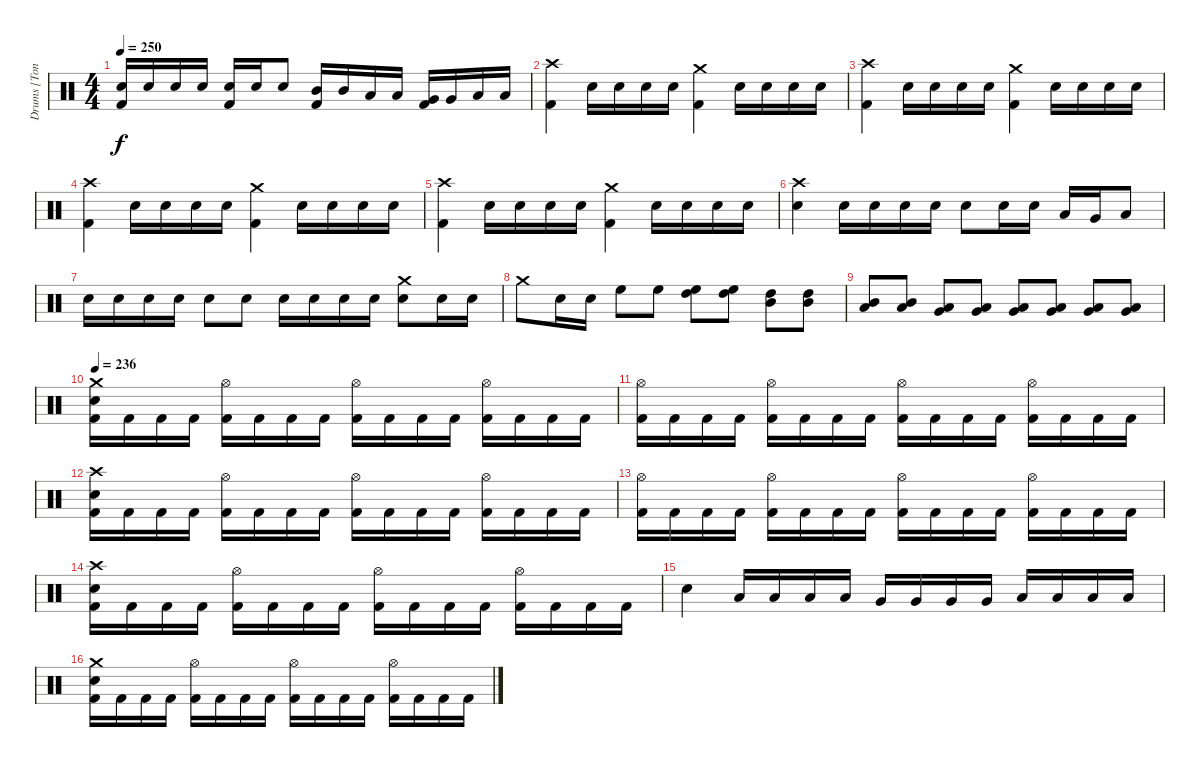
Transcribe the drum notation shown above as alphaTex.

\track ("Drums [Tony Laureano]" "Drums [Ton") {instrument percussion}
\staff {score}
\articulation defaults
\ts (4 4)
\tempo 250
\clef neutral
\ks c
("Electric Snare (hit)" "Kick (hit) 2").16{dy f} "Electric Snare (hit)".16 "Electric Snare (hit)".16 "Electric Snare (hit)".16 ("Electric Snare (hit)" "Kick (hit) 2").16 "Electric Snare (hit)".16 "Electric Snare (hit)".8 ("Mid Tom (hit)" "Kick (hit) 2").16 "Mid Tom (hit)".16 "Low Tom (hit)".16 "Low Tom (hit)".16 ("Very Low Tom (hit)" "Kick (hit) 2").16 "Very Low Tom (hit)".16 "Low Floor Tom (hit)".16 "Low Floor Tom (hit)".16 |
("Crash high (hit)" "Kick (hit) 2").4 "Electric Snare (hit)".16 "Electric Snare (hit)".16 "Electric Snare (hit)".16 "Electric Snare (hit)".16 ("Crash medium (hit)" "Kick (hit) 2").4 "Electric Snare (hit)".16 "Electric Snare (hit)".16 "Electric Snare (hit)".16 "Electric Snare (hit)".16 |
("Crash high (hit)" "Kick (hit) 2").4 "Electric Snare (hit)".16 "Electric Snare (hit)".16 "Electric Snare (hit)".16 "Electric Snare (hit)".16 ("Crash medium (hit)" "Kick (hit) 2").4 "Electric Snare (hit)".16 "Electric Snare (hit)".16 "Electric Snare (hit)".16 "Electric Snare (hit)".16 |
("Crash high (hit)" "Kick (hit) 2").4 "Electric Snare (hit)".16 "Electric Snare (hit)".16 "Electric Snare (hit)".16 "Electric Snare (hit)".16 ("Crash medium (hit)" "Kick (hit) 2").4 "Electric Snare (hit)".16 "Electric Snare (hit)".16 "Electric Snare (hit)".16 "Electric Snare (hit)".16 |
("Crash high (hit)" "Kick (hit) 2").4 "Electric Snare (hit)".16 "Electric Snare (hit)".16 "Electric Snare (hit)".16 "Electric Snare (hit)".16 ("Crash medium (hit)" "Kick (hit) 2").4 "Electric Snare (hit)".16 "Electric Snare (hit)".16 "Electric Snare (hit)".16 "Electric Snare (hit)".16 |
("Crash high (hit)" "Electric Snare (hit)").4 "Electric Snare (hit)".16 "Electric Snare (hit)".16 "Electric Snare (hit)".16 "Electric Snare (hit)".16 "Electric Snare (hit)".8 "Electric Snare (hit)".16 "Electric Snare (hit)".16 "Low Tom (hit)".16 "Very Low Tom (hit)".16 "Low Floor Tom (hit)".8 |
"Electric Snare (hit)".16 "Electric Snare (hit)".16 "Electric Snare (hit)".16 "Electric Snare (hit)".16 "Electric Snare (hit)".8 "Electric Snare (hit)".8 "Electric Snare (hit)".16 "Electric Snare (hit)".16 "Electric Snare (hit)".16 "Electric Snare (hit)".16 ("Crash medium (hit)" "Electric Snare (hit)").8 "Electric Snare (hit)".16 "Electric Snare (hit)".16 |
"Crash medium (hit)".8 "Electric Snare (hit)".16 "Electric Snare (hit)".16 "High Floor Tom (hit)".8 "High Floor Tom (hit)".8 ("High Tom (hit)" "High Floor Tom (hit)").8 ("High Tom (hit)" "High Floor Tom (hit)").8 ("Mid Tom (hit)" "High Tom (hit)").8 ("Mid Tom (hit)" "High Tom (hit)").8 |
("Mid Tom (hit)" "Low Tom (hit)").8 ("Mid Tom (hit)" "Low Tom (hit)").8 ("Low Tom (hit)" "Very Low Tom (hit)").8 ("Low Tom (hit)" "Very Low Tom (hit)").8 ("Very Low Tom (hit)" "Low Floor Tom (hit)").8 ("Very Low Tom (hit)" "Low Floor Tom (hit)").8 ("Very Low Tom (hit)" "Low Floor Tom (hit)").8 ("Very Low Tom (hit)" "Low Floor Tom (hit)").8 |
\tempo 236
("Crash medium (hit)" "Electric Snare (hit)" "Kick (hit) 2").16 "Kick (hit) 2".16 "Kick (hit) 2".16 "Kick (hit) 2".16 ("Hi-Hat (open)" "Kick (hit) 2").16 "Kick (hit) 2".16 "Kick (hit) 2".16 "Kick (hit) 2".16 ("Hi-Hat (open)" "Kick (hit) 2").16 "Kick (hit) 2".16 "Kick (hit) 2".16 "Kick (hit) 2".16 ("Hi-Hat (open)" "Kick (hit) 2").16 "Kick (hit) 2".16 "Kick (hit) 2".16 "Kick (hit) 2".16 |
("Hi-Hat (open)" "Kick (hit) 2").16 "Kick (hit) 2".16 "Kick (hit) 2".16 "Kick (hit) 2".16 ("Hi-Hat (open)" "Kick (hit) 2").16 "Kick (hit) 2".16 "Kick (hit) 2".16 "Kick (hit) 2".16 ("Hi-Hat (open)" "Kick (hit) 2").16 "Kick (hit) 2".16 "Kick (hit) 2".16 "Kick (hit) 2".16 ("Hi-Hat (open)" "Kick (hit) 2").16 "Kick (hit) 2".16 "Kick (hit) 2".16 "Kick (hit) 2".16 |
("Crash high (hit)" "Electric Snare (hit)" "Kick (hit) 2").16 "Kick (hit) 2".16 "Kick (hit) 2".16 "Kick (hit) 2".16 ("Hi-Hat (open)" "Kick (hit) 2").16 "Kick (hit) 2".16 "Kick (hit) 2".16 "Kick (hit) 2".16 ("Hi-Hat (open)" "Kick (hit) 2").16 "Kick (hit) 2".16 "Kick (hit) 2".16 "Kick (hit) 2".16 ("Hi-Hat (open)" "Kick (hit) 2").16 "Kick (hit) 2".16 "Kick (hit) 2".16 "Kick (hit) 2".16 |
("Hi-Hat (open)" "Kick (hit) 2").16 "Kick (hit) 2".16 "Kick (hit) 2".16 "Kick (hit) 2".16 ("Hi-Hat (open)" "Kick (hit) 2").16 "Kick (hit) 2".16 "Kick (hit) 2".16 "Kick (hit) 2".16 ("Hi-Hat (open)" "Kick (hit) 2").16 "Kick (hit) 2".16 "Kick (hit) 2".16 "Kick (hit) 2".16 ("Hi-Hat (open)" "Kick (hit) 2").16 "Kick (hit) 2".16 "Kick (hit) 2".16 "Kick (hit) 2".16 |
("Crash high (hit)" "Electric Snare (hit)" "Kick (hit) 2").16 "Kick (hit) 2".16 "Kick (hit) 2".16 "Kick (hit) 2".16 ("Hi-Hat (open)" "Kick (hit) 2").16 "Kick (hit) 2".16 "Kick (hit) 2".16 "Kick (hit) 2".16 ("Hi-Hat (open)" "Kick (hit) 2").16 "Kick (hit) 2".16 "Kick (hit) 2".16 "Kick (hit) 2".16 ("Hi-Hat (open)" "Kick (hit) 2").16 "Kick (hit) 2".16 "Kick (hit) 2".16 "Kick (hit) 2".16 |
"Electric Snare (hit)".4 "Low Tom (hit)".16 "Low Tom (hit)".16 "Low Tom (hit)".16 "Low Tom (hit)".16 "Very Low Tom (hit)".16 "Very Low Tom (hit)".16 "Very Low Tom (hit)".16 "Very Low Tom (hit)".16 "Low Floor Tom (hit)".16 "Low Floor Tom (hit)".16 "Low Floor Tom (hit)".16 "Low Floor Tom (hit)".16 |
("Crash medium (hit)" "Electric Snare (hit)" "Kick (hit) 2").16 "Kick (hit) 2".16 "Kick (hit) 2".16 "Kick (hit) 2".16 ("Hi-Hat (open)" "Kick (hit) 2").16 "Kick (hit) 2".16 "Kick (hit) 2".16 "Kick (hit) 2".16 ("Hi-Hat (open)" "Kick (hit) 2").16 "Kick (hit) 2".16 "Kick (hit) 2".16 "Kick (hit) 2".16 ("Hi-Hat (open)" "Kick (hit) 2").16 "Kick (hit) 2".16 "Kick (hit) 2".16 "Kick (hit) 2".16
